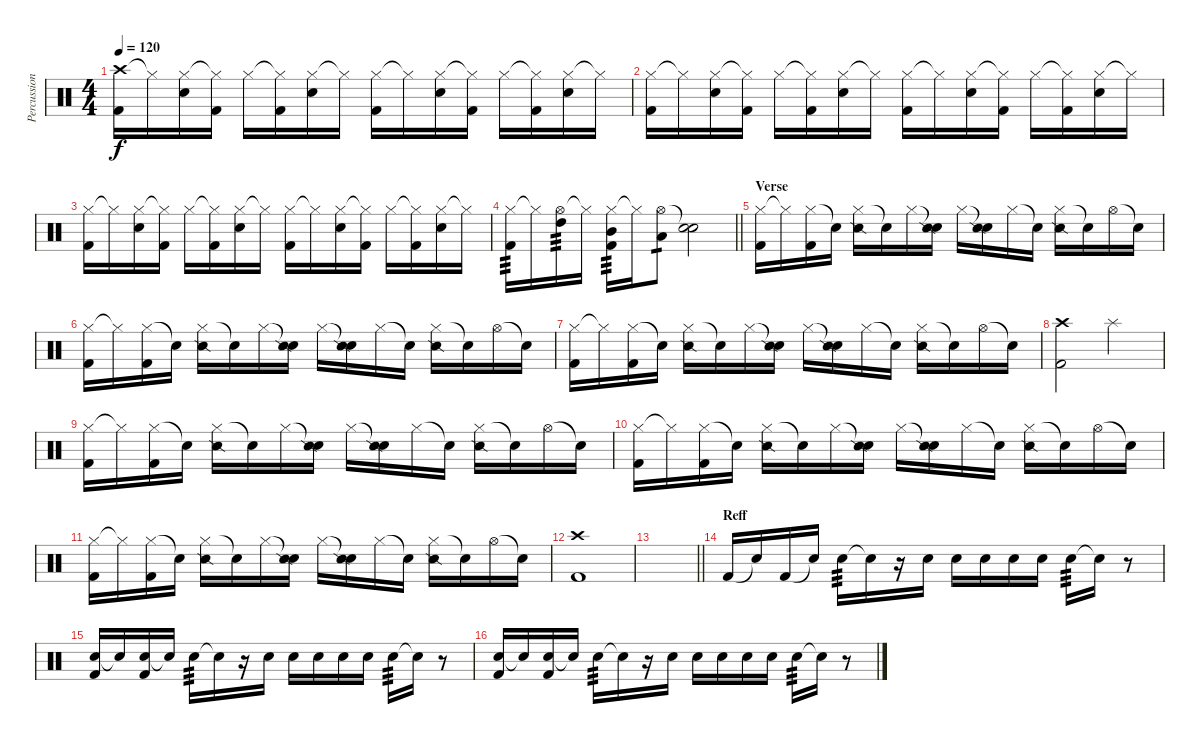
\track ("Percussion" "Percussion") {instrument percussion}
\staff {score}
\articulation defaults
\ts (4 4)
\tempo 120
\clef neutral
\ks c
("Crash high (hit)" "Kick (hit) 2").16{dy f} "Hi-Hat (closed)"{t}.16 ("Hi-Hat (closed)" "Electric Snare (hit)").16 ("Hi-Hat (closed)"{t} "Kick (hit) 2").16 "Hi-Hat (closed)".16 ("Hi-Hat (closed)"{t} "Kick (hit) 2").16 ("Hi-Hat (closed)" "Electric Snare (hit)").16 "Hi-Hat (closed)"{t}.16 ("Hi-Hat (closed)" "Kick (hit) 2").16 "Hi-Hat (closed)"{t}.16 ("Hi-Hat (closed)" "Electric Snare (hit)").16 ("Hi-Hat (closed)"{t} "Kick (hit) 2").16 "Hi-Hat (closed)".16 ("Hi-Hat (closed)"{t} "Kick (hit) 2").16 ("Hi-Hat (closed)" "Electric Snare (hit)").16 "Hi-Hat (closed)"{t}.16 |
("Hi-Hat (closed)" "Kick (hit) 2").16 "Hi-Hat (closed)"{t}.16 ("Hi-Hat (closed)" "Electric Snare (hit)").16 ("Hi-Hat (closed)"{t} "Kick (hit) 2").16 "Hi-Hat (closed)".16 ("Hi-Hat (closed)"{t} "Kick (hit) 2").16 ("Hi-Hat (closed)" "Electric Snare (hit)").16 "Hi-Hat (closed)"{t}.16 ("Hi-Hat (closed)" "Kick (hit) 2").16 "Hi-Hat (closed)"{t}.16 ("Hi-Hat (closed)" "Electric Snare (hit)").16 ("Hi-Hat (closed)"{t} "Kick (hit) 2").16 "Hi-Hat (closed)".16 ("Hi-Hat (closed)"{t} "Kick (hit) 2").16 ("Hi-Hat (closed)" "Electric Snare (hit)").16 "Hi-Hat (closed)"{t}.16 |
("Hi-Hat (closed)" "Kick (hit) 2").16 "Hi-Hat (closed)"{t}.16 ("Hi-Hat (closed)" "Electric Snare (hit)").16 ("Hi-Hat (closed)"{t} "Kick (hit) 2").16 "Hi-Hat (closed)".16 ("Hi-Hat (closed)"{t} "Kick (hit) 2").16 ("Hi-Hat (closed)" "Electric Snare (hit)").16 "Hi-Hat (closed)"{t}.16 ("Hi-Hat (closed)" "Kick (hit) 2").16 "Hi-Hat (closed)"{t}.16 ("Hi-Hat (closed)" "Electric Snare (hit)").16 ("Hi-Hat (closed)"{t} "Kick (hit) 2").16 "Hi-Hat (closed)".16 ("Hi-Hat (closed)"{t} "Kick (hit) 2").16 ("Hi-Hat (closed)" "Electric Snare (hit)").16 "Hi-Hat (closed)"{t}.16 |
\barLineRight lightlight
("Hi-Hat (closed)" "Kick (hit) 2").16{tp 3} "Hi-Hat (closed)"{t}.16 ("Hi-Hat (open)" "High Tom (hit)").16{tp 3} "Hi-Hat (closed)"{t}.16 ("Hi-Hat (closed)" "Mid Tom (hit)" "Kick (hit) 2").16{tp 3} "Hi-Hat (closed)"{t}.16 ("Hi-Hat (open)" "Low Tom (hit)").8{tp 1} ("Snare (hit)"{t} "Electric Snare (hit)").2 |
\section ("" "Verse")
("Hi-Hat (closed)" "Kick (hit) 2").16 "Hi-Hat (closed)"{t}.16 ("Hi-Hat (closed)" "Kick (hit) 2").16 "Snare (hit)"{t}.16 ("Hi-Hat (closed)" "Snare (side stick) 2").16 "Snare (hit)"{t}.16 "Hi-Hat (closed)".16 ("Snare (hit)"{t} "Snare (side stick) 2").16 "Hi-Hat (closed)".16 ("Snare (hit)"{t} "Snare (side stick) 2").16 "Hi-Hat (closed)".16 "Snare (hit)"{t}.16 ("Hi-Hat (closed)" "Snare (side stick) 2").16 "Snare (hit)"{t}.16 "Hi-Hat (open)".16 "Snare (hit)"{t}.16 |
("Hi-Hat (closed)" "Kick (hit) 2").16 "Hi-Hat (closed)"{t}.16 ("Hi-Hat (closed)" "Kick (hit) 2").16 "Snare (hit)"{t}.16 ("Hi-Hat (closed)" "Snare (side stick) 2").16 "Snare (hit)"{t}.16 "Hi-Hat (closed)".16 ("Snare (hit)"{t} "Snare (side stick) 2").16 "Hi-Hat (closed)".16 ("Snare (hit)"{t} "Snare (side stick) 2").16 "Hi-Hat (closed)".16 "Snare (hit)"{t}.16 ("Hi-Hat (closed)" "Snare (side stick) 2").16 "Snare (hit)"{t}.16 "Hi-Hat (open)".16 "Snare (hit)"{t}.16 |
("Hi-Hat (closed)" "Kick (hit) 2").16 "Hi-Hat (closed)"{t}.16 ("Hi-Hat (closed)" "Kick (hit) 2").16 "Snare (hit)"{t}.16 ("Hi-Hat (closed)" "Snare (side stick) 2").16 "Snare (hit)"{t}.16 "Hi-Hat (closed)".16 ("Snare (hit)"{t} "Snare (side stick) 2").16 "Hi-Hat (closed)".16 ("Snare (hit)"{t} "Snare (side stick) 2").16 "Hi-Hat (closed)".16 "Snare (hit)"{t}.16 ("Hi-Hat (closed)" "Snare (side stick) 2").16 "Snare (hit)"{t}.16 "Hi-Hat (open)".16 "Snare (hit)"{t}.16 |
("Crash high (hit)" "Kick (hit) 2").2 "Splash (hit)".2 |
("Hi-Hat (closed)" "Kick (hit) 2").16 "Hi-Hat (closed)"{t}.16 ("Hi-Hat (closed)" "Kick (hit) 2").16 "Snare (hit)"{t}.16 ("Hi-Hat (closed)" "Snare (side stick) 2").16 "Snare (hit)"{t}.16 "Hi-Hat (closed)".16 ("Snare (hit)"{t} "Snare (side stick) 2").16 "Hi-Hat (closed)".16 ("Snare (hit)"{t} "Snare (side stick) 2").16 "Hi-Hat (closed)".16 "Snare (hit)"{t}.16 ("Hi-Hat (closed)" "Snare (side stick) 2").16 "Snare (hit)"{t}.16 "Hi-Hat (open)".16 "Snare (hit)"{t}.16 |
("Hi-Hat (closed)" "Kick (hit) 2").16 "Hi-Hat (closed)"{t}.16 ("Hi-Hat (closed)" "Kick (hit) 2").16 "Snare (hit)"{t}.16 ("Hi-Hat (closed)" "Snare (side stick) 2").16 "Snare (hit)"{t}.16 "Hi-Hat (closed)".16 ("Snare (hit)"{t} "Snare (side stick) 2").16 "Hi-Hat (closed)".16 ("Snare (hit)"{t} "Snare (side stick) 2").16 "Hi-Hat (closed)".16 "Snare (hit)"{t}.16 ("Hi-Hat (closed)" "Snare (side stick) 2").16 "Snare (hit)"{t}.16 "Hi-Hat (open)".16 "Snare (hit)"{t}.16 |
("Hi-Hat (closed)" "Kick (hit) 2").16 "Hi-Hat (closed)"{t}.16 ("Hi-Hat (closed)" "Kick (hit) 2").16 "Snare (hit)"{t}.16 ("Hi-Hat (closed)" "Snare (side stick) 2").16 "Snare (hit)"{t}.16 "Hi-Hat (closed)".16 ("Snare (hit)"{t} "Snare (side stick) 2").16 "Hi-Hat (closed)".16 ("Snare (hit)"{t} "Snare (side stick) 2").16 "Hi-Hat (closed)".16 "Snare (hit)"{t}.16 ("Hi-Hat (closed)" "Snare (side stick) 2").16 "Snare (hit)"{t}.16 "Hi-Hat (open)".16 "Snare (hit)"{t}.16 |
("Crash high (hit)" "Kick (hit) 2").1 |
\barLineRight lightlight
|
\section ("" "Reff")
"Kick (hit) 2".16 "Snare (hit)"{t}.16 "Kick (hit) 2".16 "Snare (hit)"{t}.16 "Electric Snare (hit)".16{tp 3} "Snare (hit)"{t}.16 r.16 "Electric Snare (hit)".16 "Electric Snare (hit)".16 "Electric Snare (hit)".16 "Electric Snare (hit)".16 "Electric Snare (hit)".16 "Electric Snare (hit)".16{tp 3} "Snare (hit)"{t}.16 r.8 |
("Electric Snare (hit)" "Kick (hit) 2").16 "Snare (hit)"{t}.16 ("Electric Snare (hit)" "Kick (hit) 2").16 "Snare (hit)"{t}.16 "Electric Snare (hit)".16{tp 3} "Snare (hit)"{t}.16 r.16 "Electric Snare (hit)".16 "Electric Snare (hit)".16 "Electric Snare (hit)".16 "Electric Snare (hit)".16 "Electric Snare (hit)".16 "Electric Snare (hit)".16{tp 3} "Snare (hit)"{t}.16 r.8 |
("Electric Snare (hit)" "Kick (hit) 2").16 "Snare (hit)"{t}.16 ("Electric Snare (hit)" "Kick (hit) 2").16 "Snare (hit)"{t}.16 "Electric Snare (hit)".16{tp 3} "Snare (hit)"{t}.16 r.16 "Electric Snare (hit)".16 "Electric Snare (hit)".16 "Electric Snare (hit)".16 "Electric Snare (hit)".16 "Electric Snare (hit)".16 "Electric Snare (hit)".16{tp 3} "Snare (hit)"{t}.16 r.8
